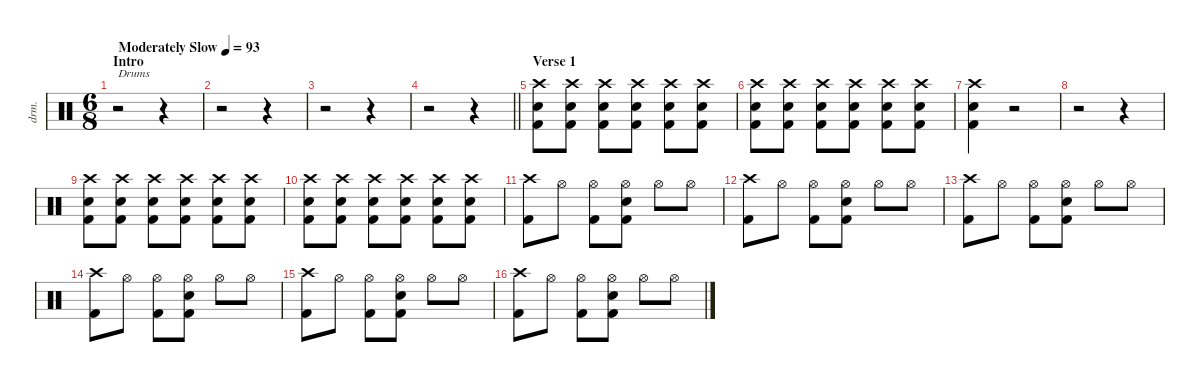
\defaultSystemsLayout 4
\hideDynamics
\bracketExtendMode nobrackets
\otherSystemsTrackNameOrientation horizontal
\track ("Drums" "drm.") {instrument percussion}
\staff {score}
\articulation defaults
\ts (6 8)
\beaming (8 2 2 2 2)
\section ("" "Intro")
\tempo (93 "Moderately Slow")
\clef neutral
\ks c
r.2{txt "Drums" dy f beam Down} r.4{beam Down} |
r.2{beam Down} r.4{beam Down} |
r.2{beam Down} r.4{beam Down} |
\barLineRight lightlight
r.2{beam Down} r.4{beam Down} |
\section ("" "Verse 1")
("Crash high (hit)" "Snare (hit) 2" "Kick (hit) 2").8{beam Down} ("Crash high (hit)" "Snare (hit) 2" "Kick (hit) 2").8{beam Down} ("Crash high (hit)" "Snare (hit) 2" "Kick (hit) 2").8{beam Down} ("Crash high (hit)" "Snare (hit) 2" "Kick (hit) 2").8{beam Down} ("Crash high (hit)" "Snare (hit) 2" "Kick (hit) 2").8{beam Down} ("Crash high (hit)" "Snare (hit) 2" "Kick (hit) 2").8{beam Down} |
("Crash high (hit)" "Snare (hit) 2" "Kick (hit) 2").8{beam Down} ("Crash high (hit)" "Snare (hit) 2" "Kick (hit) 2").8{beam Down} ("Crash high (hit)" "Snare (hit) 2" "Kick (hit) 2").8{beam Down} ("Crash high (hit)" "Snare (hit) 2" "Kick (hit) 2").8{beam Down} ("Crash high (hit)" "Snare (hit) 2" "Kick (hit) 2").8{beam Down} ("Crash high (hit)" "Snare (hit) 2" "Kick (hit) 2").8{beam Down} |
("Crash high (hit)" "Snare (hit) 2" "Kick (hit) 2").4{beam Down} r.2{beam Down} |
r.2{beam Down} r.4{beam Down} |
("Crash high (hit)" "Snare (hit) 2" "Kick (hit) 2").8{beam Down} ("Crash high (hit)" "Snare (hit) 2" "Kick (hit) 2").8{beam Down} ("Crash high (hit)" "Snare (hit) 2" "Kick (hit) 2").8{beam Down} ("Crash high (hit)" "Snare (hit) 2" "Kick (hit) 2").8{beam Down} ("Crash high (hit)" "Snare (hit) 2" "Kick (hit) 2").8{beam Down} ("Crash high (hit)" "Snare (hit) 2" "Kick (hit) 2").8{beam Down} |
("Crash high (hit)" "Snare (hit) 2" "Kick (hit) 2").8{beam Down} ("Crash high (hit)" "Snare (hit) 2" "Kick (hit) 2").8{beam Down} ("Crash high (hit)" "Snare (hit) 2" "Kick (hit) 2").8{beam Down} ("Crash high (hit)" "Snare (hit) 2" "Kick (hit) 2").8{beam Down} ("Crash high (hit)" "Snare (hit) 2" "Kick (hit) 2").8{beam Down} ("Crash high (hit)" "Snare (hit) 2" "Kick (hit) 2").8{beam Down} |
("Crash high (hit)" "Kick (hit) 2").8{beam Down} "Hi-Hat (open)".8{beam Down} ("Hi-Hat (open)" "Kick (hit) 2").8{beam Down} ("Hi-Hat (open)" "Snare (hit) 2" "Kick (hit) 2").8{beam Down} "Hi-Hat (open)".8{beam Down} "Hi-Hat (open)".8{beam Down} |
("Crash high (hit)" "Kick (hit) 2").8{beam Down} "Hi-Hat (open)".8{beam Down} ("Hi-Hat (open)" "Kick (hit) 2").8{beam Down} ("Hi-Hat (open)" "Snare (hit) 2" "Kick (hit) 2").8{beam Down} "Hi-Hat (open)".8{beam Down} "Hi-Hat (open)".8{beam Down} |
("Crash high (hit)" "Kick (hit) 2").8{beam Down} "Hi-Hat (open)".8{beam Down} ("Hi-Hat (open)" "Kick (hit) 2").8{beam Down} ("Hi-Hat (open)" "Snare (hit) 2" "Kick (hit) 2").8{beam Down} "Hi-Hat (open)".8{beam Down} "Hi-Hat (open)".8{beam Down} |
("Crash high (hit)" "Kick (hit) 2").8{beam Down} "Hi-Hat (open)".8{beam Down} ("Hi-Hat (open)" "Kick (hit) 2").8{beam Down} ("Hi-Hat (open)" "Snare (hit) 2" "Kick (hit) 2").8{beam Down} "Hi-Hat (open)".8{beam Down} "Hi-Hat (open)".8{beam Down} |
("Crash high (hit)" "Kick (hit) 2").8{beam Down} "Hi-Hat (open)".8{beam Down} ("Hi-Hat (open)" "Kick (hit) 2").8{beam Down} ("Hi-Hat (open)" "Snare (hit) 2" "Kick (hit) 2").8{beam Down} "Hi-Hat (open)".8{beam Down} "Hi-Hat (open)".8{beam Down} |
("Crash high (hit)" "Kick (hit) 2").8{beam Down} "Hi-Hat (open)".8{beam Down} ("Hi-Hat (open)" "Kick (hit) 2").8{beam Down} ("Hi-Hat (open)" "Snare (hit) 2" "Kick (hit) 2").8{beam Down} "Hi-Hat (open)".8{beam Down} "Hi-Hat (open)".8{beam Down}
